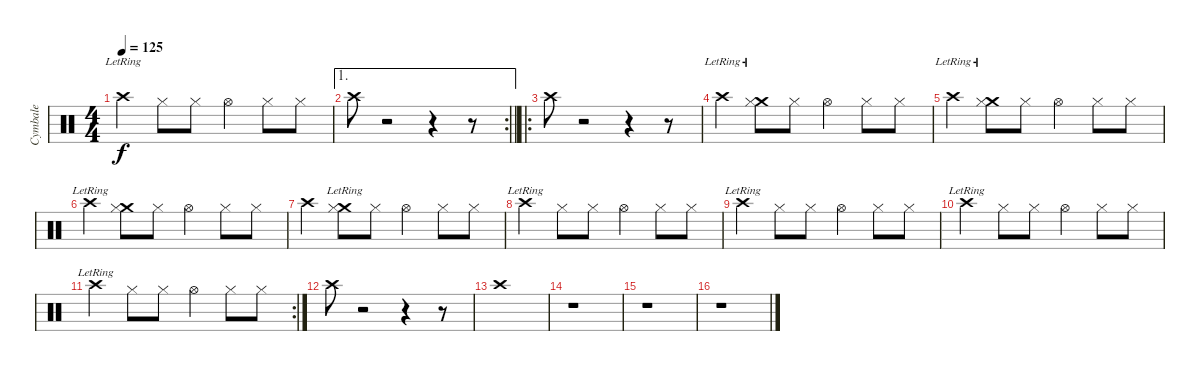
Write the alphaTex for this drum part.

\track ("Cymbale" "Cymbale") {instrument percussion}
\staff {score}
\articulation defaults
\ts (4 4)
\tempo 125
\clef neutral
\ks c "Crash high (hit)"{lr}.4{dy f} "Hi-Hat (closed)".8 "Hi-Hat (closed)".8 "Hi-Hat (open)".4 "Hi-Hat (closed)".8 "Hi-Hat (closed)".8
|
\ae 1
\rc 2
\barLineRight lightlight "Crash high (hit)".8
r.2 r.4 r.8 |
\ro "Crash high (hit)".8
r.2 r.4 r.8 |
"Crash high (hit)"{lr}.4 ("Crash medium (hit)"{lr} "Hi-Hat (closed)").8 "Hi-Hat (closed)".8 "Hi-Hat (open)".4 "Hi-Hat (closed)".8 "Hi-Hat (closed)".8 |
"Crash high (hit)"{lr}.4 ("Crash medium (hit)"{lr} "Hi-Hat (closed)").8 "Hi-Hat (closed)".8 "Hi-Hat (open)".4 "Hi-Hat (closed)".8 "Hi-Hat (closed)".8 |
"Crash high (hit)"{lr}.4 ("Crash medium (hit)" "Hi-Hat (closed)").8 "Hi-Hat (closed)".8 "Hi-Hat (open)".4 "Hi-Hat (closed)".8 "Hi-Hat (closed)".8 |
"Crash high (hit)".4 ("Crash medium (hit)"{lr} "Hi-Hat (closed)").8 "Hi-Hat (closed)".8 "Hi-Hat (open)".4 "Hi-Hat (closed)".8 "Hi-Hat (closed)".8 |
"Crash high (hit)"{lr}.4 "Hi-Hat (closed)".8 "Hi-Hat (closed)".8 "Hi-Hat (open)".4 "Hi-Hat (closed)".8 "Hi-Hat (closed)".8 |
"Crash high (hit)"{lr}.4 "Hi-Hat (closed)".8 "Hi-Hat (closed)".8 "Hi-Hat (open)".4 "Hi-Hat (closed)".8 "Hi-Hat (closed)".8 |
"Crash high (hit)"{lr}.4 "Hi-Hat (closed)".8 "Hi-Hat (closed)".8 "Hi-Hat (open)".4 "Hi-Hat (closed)".8 "Hi-Hat (closed)".8 |
\rc 2 "Crash high (hit)"{lr}.4 "Hi-Hat (closed)".8 "Hi-Hat (closed)".8 "Hi-Hat (open)".4 "Hi-Hat (closed)".8 "Hi-Hat (closed)".8
|
"Crash high (hit)".8 r.2 r.4 r.8 |
"Crash high (hit)".1 |
r.1 |
r.1 |
r.1
